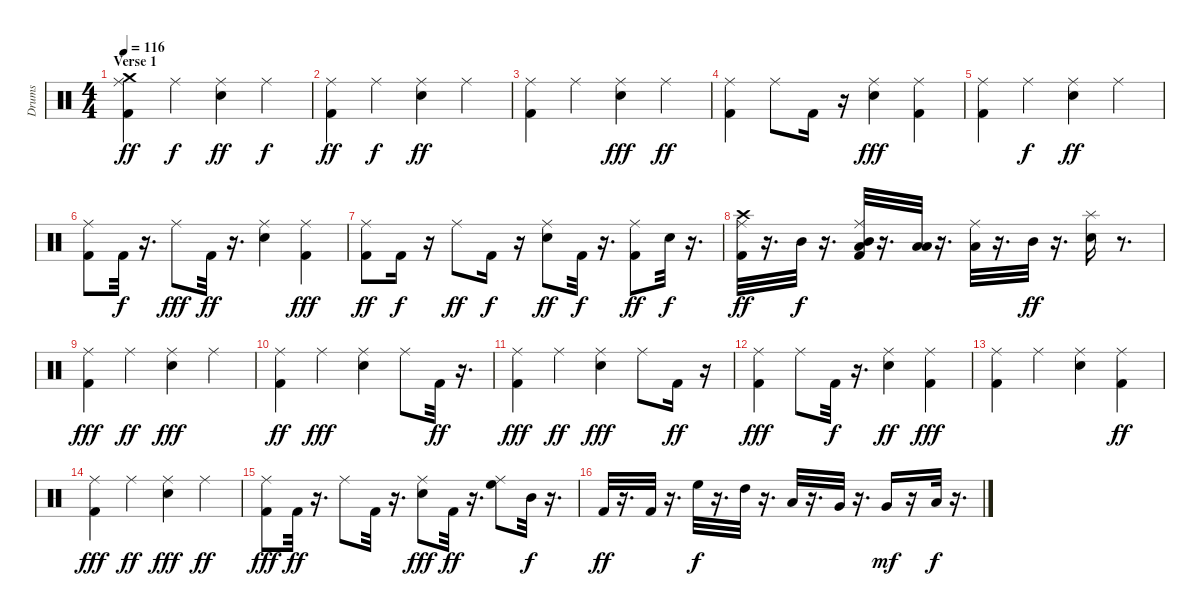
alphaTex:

\track ("Drums" "Drums") {instrument percussion}
\staff {score}
\articulation defaults
\ts (4 4)
\section ("" "Verse 1")
\tempo 116
\clef neutral
\ks c
("Kick (hit) 2" "Ride (middle)" "Crash medium (hit)").4{dy ff} "Ride (middle)".4{dy f} ("Snare (hit) 2" "Ride (middle)").4{dy ff} "Ride (middle)".4{dy f} |
("Kick (hit) 2" "Ride (middle)").4{dy ff} "Ride (middle)".4{dy f} ("Snare (hit) 2" "Ride (middle)").4{dy ff} "Ride (middle)".4 |
("Kick (hit) 2" "Ride (middle)").4 "Ride (middle)".4 ("Snare (hit) 2" "Ride (middle)").4{dy fff} "Ride (middle)".4{dy ff} |
("Kick (hit) 2" "Ride (middle)").4 "Ride (middle)".8 "Kick (hit) 2".16 r.16 ("Snare (hit) 2" "Ride (middle)").4{dy fff} ("Kick (hit) 2" "Ride (middle)").4 |
("Kick (hit) 2" "Ride (middle)").4 "Ride (middle)".4{dy f} ("Ride (middle)" "Snare (hit) 2").4{dy ff} "Ride (middle)".4 |
("Kick (hit) 2" "Ride (middle)").8 "Kick (hit) 2".32{dy f} r.16{d} "Ride (middle)".8{dy fff} "Kick (hit) 2".32{dy ff} r.16{d} ("Snare (hit) 2" "Ride (middle)").4 ("Kick (hit) 2" "Ride (middle)").4{dy fff} |
("Kick (hit) 2" "Ride (middle)").8{dy ff} "Kick (hit) 2".16{dy f} r.16 "Ride (middle)".8{dy ff} "Kick (hit) 2".16{dy f} r.16 ("Snare (hit) 2" "Ride (middle)").8{dy ff} "Kick (hit) 2".32{dy f} r.16{d} ("Kick (hit) 2" "Ride (middle)").8{dy ff} "Snare (hit) 2".32{dy f} r.16{d} |
("Crash high (hit)" "Ride (middle)" "Kick (hit) 2").32{dy ff} r.16{d} "Mid Tom (hit)".32{dy f} r.16{d} ("Ride (middle)" "Low Tom (hit)" "Mid Tom (hit)" "Kick (hit) 2").32 r.16{d} ("Low Floor Tom (hit)" "Low Tom (hit)").32 r.16{d} ("Low Tom (hit)" "Ride (middle)").32 r.16{d} "Mid Tom (hit)".32{dy ff} r.16{d} ("Splash (hit)" "Snare (hit) 2").16 r.8{d} |
("Kick (hit) 2" "Ride (middle)").4{dy fff} "Ride (middle)".4{dy ff} ("Snare (hit) 2" "Ride (middle)").4{dy fff} "Ride (middle)".4 |
("Kick (hit) 2" "Ride (middle)").4{dy ff} "Ride (middle)".4{dy fff} ("Snare (hit) 2" "Ride (middle)").4 "Ride (middle)".8 "Kick (hit) 2".32{dy ff} r.16{d} |
("Kick (hit) 2" "Ride (middle)").4{dy fff} "Ride (middle)".4{dy ff} ("Snare (hit) 2" "Ride (middle)").4{dy fff} "Ride (middle)".8 "Kick (hit) 2".16{dy ff} r.16 |
("Kick (hit) 2" "Ride (middle)").4{dy fff} "Ride (middle)".8 "Kick (hit) 2".32{dy f} r.16{d} ("Snare (hit) 2" "Ride (middle)").4{dy ff} ("Kick (hit) 2" "Ride (middle)").4{dy fff} |
("Kick (hit) 2" "Ride (middle)").4 "Ride (middle)".4 ("Snare (hit) 2" "Ride (middle)").4 ("Kick (hit) 2" "Ride (middle)").4{dy ff} |
("Kick (hit) 2" "Ride (middle)").4{dy fff} "Ride (middle)".4{dy ff} ("Snare (hit) 2" "Ride (middle)").4{dy fff} "Ride (middle)".4{dy ff} |
("Kick (hit) 2" "Ride (middle)").8{dy fff} "Kick (hit) 2".32{dy ff} r.16{d} "Ride (middle)".8 "Kick (hit) 2".32 r.16{d} ("Snare (hit) 2" "Ride (middle)").8{dy fff} "Kick (hit) 2".32{dy ff} r.16{d} ("High Floor Tom (hit)" "Ride (middle)").8 "Mid Tom (hit)".32{dy f} r.16{d} |
"Kick (hit) 2".32{dy ff} r.16{d} "Kick (hit) 2".32 r.16{d} "High Floor Tom (hit)".32{dy f} r.16{d} "High Tom (hit)".32 r.16{d} "Low Tom (hit)".32 r.16{d} "Very Low Tom (hit)".32 r.16{d} "Very Low Tom (hit)".16{dy mf} r.16 "Low Floor Tom (hit)".32{dy f} r.16{d}
